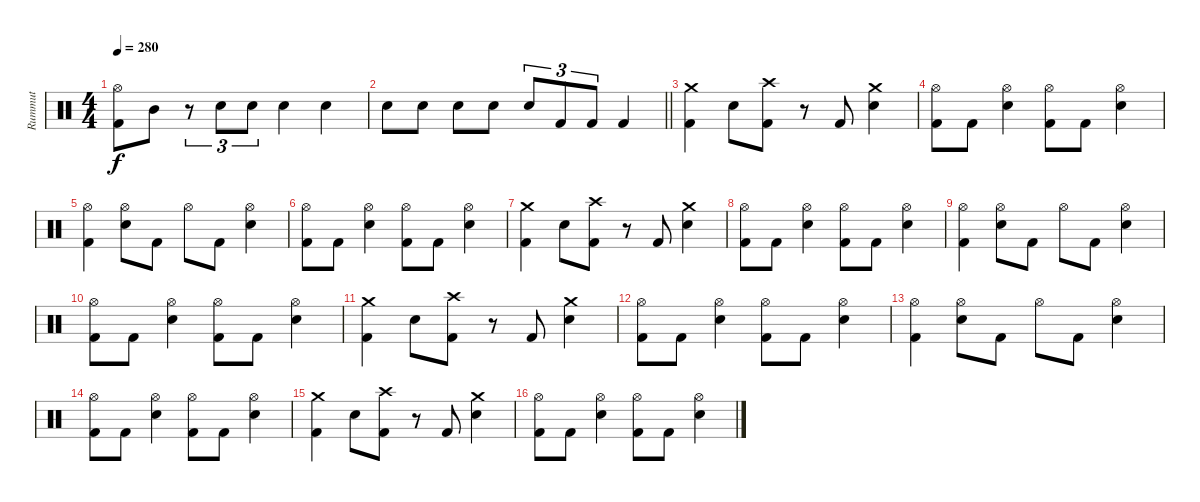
\track ("Rummut" "Rummut") {instrument percussion}
\staff {score}
\articulation defaults
\ts (4 4)
\tempo 280
\clef neutral
\ks c
("Hi-Hat (open)" "Kick (hit) 2").8{dy f} "Mid Tom (hit)".8 r.8{tu (3 2)} "Snare (hit) 2".8{tu (3 2)} "Snare (hit) 2".8{tu (3 2)} "Snare (hit) 2".4 "Snare (hit) 2".4 |
\barLineRight lightlight "Snare (hit) 2".8 "Snare (hit) 2".8 "Snare (hit) 2".8 "Snare (hit) 2".8 "Snare (hit) 2".8{tu (3 2)} "Kick (hit) 2".8{tu (3 2)} "Kick (hit) 2".8{tu (3 2)} "Kick (hit) 2".4
|
("Crash medium (hit)" "Kick (hit) 2").4 "Snare (hit) 2".8 ("Crash high (hit)" "Kick (hit) 2").8 r.8 "Kick (hit) 2".8 ("Crash medium (hit)" "Snare (hit) 2").4 |
("Hi-Hat (open)" "Kick (hit) 2").8 "Kick (hit) 2".8 ("Hi-Hat (open)" "Snare (hit) 2").4 ("Hi-Hat (open)" "Kick (hit) 2").8 "Kick (hit) 2".8 ("Hi-Hat (open)" "Snare (hit) 2").4 |
("Hi-Hat (open)" "Kick (hit) 2").4 ("Hi-Hat (open)" "Snare (hit) 2").8 "Kick (hit) 2".8 "Hi-Hat (open)".8 "Kick (hit) 2".8 ("Hi-Hat (open)" "Snare (hit) 2").4 |
("Hi-Hat (open)" "Kick (hit) 2").8 "Kick (hit) 2".8 ("Hi-Hat (open)" "Snare (hit) 2").4 ("Hi-Hat (open)" "Kick (hit) 2").8 "Kick (hit) 2".8 ("Hi-Hat (open)" "Snare (hit) 2").4 |
("Crash medium (hit)" "Kick (hit) 2").4 "Snare (hit) 2".8 ("Crash high (hit)" "Kick (hit) 2").8 r.8 "Kick (hit) 2".8 ("Crash medium (hit)" "Snare (hit) 2").4 |
("Hi-Hat (open)" "Kick (hit) 2").8 "Kick (hit) 2".8 ("Hi-Hat (open)" "Snare (hit) 2").4 ("Hi-Hat (open)" "Kick (hit) 2").8 "Kick (hit) 2".8 ("Hi-Hat (open)" "Snare (hit) 2").4 |
("Hi-Hat (open)" "Kick (hit) 2").4 ("Hi-Hat (open)" "Snare (hit) 2").8 "Kick (hit) 2".8 "Hi-Hat (open)".8 "Kick (hit) 2".8 ("Hi-Hat (open)" "Snare (hit) 2").4 |
("Hi-Hat (open)" "Kick (hit) 2").8 "Kick (hit) 2".8 ("Hi-Hat (open)" "Snare (hit) 2").4 ("Hi-Hat (open)" "Kick (hit) 2").8 "Kick (hit) 2".8 ("Hi-Hat (open)" "Snare (hit) 2").4 |
("Crash medium (hit)" "Kick (hit) 2").4 "Snare (hit) 2".8 ("Crash high (hit)" "Kick (hit) 2").8 r.8 "Kick (hit) 2".8 ("Crash medium (hit)" "Snare (hit) 2").4 |
("Hi-Hat (open)" "Kick (hit) 2").8 "Kick (hit) 2".8 ("Hi-Hat (open)" "Snare (hit) 2").4 ("Hi-Hat (open)" "Kick (hit) 2").8 "Kick (hit) 2".8 ("Hi-Hat (open)" "Snare (hit) 2").4 |
("Hi-Hat (open)" "Kick (hit) 2").4 ("Hi-Hat (open)" "Snare (hit) 2").8 "Kick (hit) 2".8 "Hi-Hat (open)".8 "Kick (hit) 2".8 ("Hi-Hat (open)" "Snare (hit) 2").4 |
("Hi-Hat (open)" "Kick (hit) 2").8 "Kick (hit) 2".8 ("Hi-Hat (open)" "Snare (hit) 2").4 ("Hi-Hat (open)" "Kick (hit) 2").8 "Kick (hit) 2".8 ("Hi-Hat (open)" "Snare (hit) 2").4 |
("Crash medium (hit)" "Kick (hit) 2").4 "Snare (hit) 2".8 ("Crash high (hit)" "Kick (hit) 2").8 r.8 "Kick (hit) 2".8 ("Crash medium (hit)" "Snare (hit) 2").4 |
("Hi-Hat (open)" "Kick (hit) 2").8 "Kick (hit) 2".8 ("Hi-Hat (open)" "Snare (hit) 2").4 ("Hi-Hat (open)" "Kick (hit) 2").8 "Kick (hit) 2".8 ("Hi-Hat (open)" "Snare (hit) 2").4
